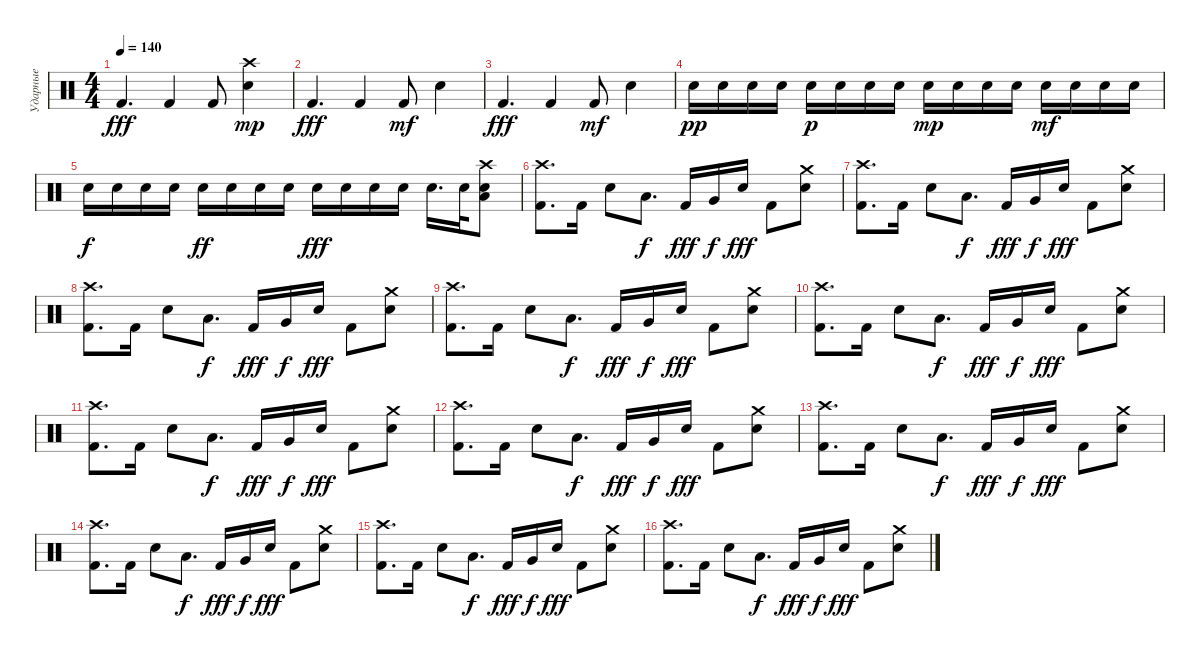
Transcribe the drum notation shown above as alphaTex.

\track ("Ударные" "Ударные") {instrument percussion}
\staff {score}
\articulation defaults
\ts (4 4)
\tempo 140
\clef neutral
\ks c "Kick (hit) 2".4{d dy fff} "Kick (hit) 2".4 "Kick (hit) 2".8
("Electric Snare (hit)" "Crash high (hit)").4{dy mp} |
"Kick (hit) 2".4{d dy fff} "Kick (hit) 2".4 "Kick (hit) 2".8{dy mf} "Electric Snare (hit)".4 |
"Kick (hit) 2".4{d dy fff} "Kick (hit) 2".4 "Kick (hit) 2".8{dy mf} "Electric Snare (hit)".4 |
"Electric Snare (hit)".16{dy pp} "Electric Snare (hit)".16 "Electric Snare (hit)".16 "Electric Snare (hit)".16 "Electric Snare (hit)".16{dy p} "Electric Snare (hit)".16 "Electric Snare (hit)".16 "Electric Snare (hit)".16 "Electric Snare (hit)".16{dy mp} "Electric Snare (hit)".16 "Electric Snare (hit)".16 "Electric Snare (hit)".16 "Electric Snare (hit)".16{dy mf} "Electric Snare (hit)".16 "Electric Snare (hit)".16 "Electric Snare (hit)".16 |
"Electric Snare (hit)".16{dy f} "Electric Snare (hit)".16 "Electric Snare (hit)".16 "Electric Snare (hit)".16 "Electric Snare (hit)".16{dy ff} "Electric Snare (hit)".16 "Electric Snare (hit)".16 "Electric Snare (hit)".16 "Electric Snare (hit)".16{dy fff} "Electric Snare (hit)".16 "Electric Snare (hit)".16 "Electric Snare (hit)".16 "Electric Snare (hit)".16{d} "Electric Snare (hit)".32 ("Low Floor Tom (hit)" "Electric Snare (hit)" "Crash high (hit)").8 |
("Kick (hit) 2" "Crash high (hit)").8{d} "Kick (hit) 2".16 "Electric Snare (hit)".8 "Low Floor Tom (hit)".8{d dy f} "Kick (hit) 2".16{dy fff} "Very Low Tom (hit)".16{dy f} "Electric Snare (hit)".16{dy fff} "Kick (hit) 2".8 ("Electric Snare (hit)" "Crash medium (hit)").8 |
("Kick (hit) 2" "Crash high (hit)").8{d} "Kick (hit) 2".16 "Electric Snare (hit)".8 "Low Floor Tom (hit)".8{d dy f} "Kick (hit) 2".16{dy fff} "Very Low Tom (hit)".16{dy f} "Electric Snare (hit)".16{dy fff} "Kick (hit) 2".8 ("Electric Snare (hit)" "Crash medium (hit)").8 |
("Kick (hit) 2" "Crash high (hit)").8{d} "Kick (hit) 2".16 "Electric Snare (hit)".8 "Low Floor Tom (hit)".8{d dy f} "Kick (hit) 2".16{dy fff} "Very Low Tom (hit)".16{dy f} "Electric Snare (hit)".16{dy fff} "Kick (hit) 2".8 ("Electric Snare (hit)" "Crash medium (hit)").8 |
("Kick (hit) 2" "Crash high (hit)").8{d} "Kick (hit) 2".16 "Electric Snare (hit)".8 "Low Floor Tom (hit)".8{d dy f} "Kick (hit) 2".16{dy fff} "Very Low Tom (hit)".16{dy f} "Electric Snare (hit)".16{dy fff} "Kick (hit) 2".8 ("Electric Snare (hit)" "Crash medium (hit)").8 |
("Kick (hit) 2" "Crash high (hit)").8{d} "Kick (hit) 2".16 "Electric Snare (hit)".8 "Low Floor Tom (hit)".8{d dy f} "Kick (hit) 2".16{dy fff} "Very Low Tom (hit)".16{dy f} "Electric Snare (hit)".16{dy fff} "Kick (hit) 2".8 ("Electric Snare (hit)" "Crash medium (hit)").8 |
("Kick (hit) 2" "Crash high (hit)").8{d} "Kick (hit) 2".16 "Electric Snare (hit)".8 "Low Floor Tom (hit)".8{d dy f} "Kick (hit) 2".16{dy fff} "Very Low Tom (hit)".16{dy f} "Electric Snare (hit)".16{dy fff} "Kick (hit) 2".8 ("Electric Snare (hit)" "Crash medium (hit)").8 |
("Kick (hit) 2" "Crash high (hit)").8{d} "Kick (hit) 2".16 "Electric Snare (hit)".8 "Low Floor Tom (hit)".8{d dy f} "Kick (hit) 2".16{dy fff} "Very Low Tom (hit)".16{dy f} "Electric Snare (hit)".16{dy fff} "Kick (hit) 2".8 ("Electric Snare (hit)" "Crash medium (hit)").8 |
("Kick (hit) 2" "Crash high (hit)").8{d} "Kick (hit) 2".16 "Electric Snare (hit)".8 "Low Floor Tom (hit)".8{d dy f} "Kick (hit) 2".16{dy fff} "Very Low Tom (hit)".16{dy f} "Electric Snare (hit)".16{dy fff} "Kick (hit) 2".8 ("Electric Snare (hit)" "Crash medium (hit)").8 |
("Kick (hit) 2" "Crash high (hit)").8{d} "Kick (hit) 2".16 "Electric Snare (hit)".8 "Low Floor Tom (hit)".8{d dy f} "Kick (hit) 2".16{dy fff} "Very Low Tom (hit)".16{dy f} "Electric Snare (hit)".16{dy fff} "Kick (hit) 2".8 ("Electric Snare (hit)" "Crash medium (hit)").8 |
("Kick (hit) 2" "Crash high (hit)").8{d} "Kick (hit) 2".16 "Electric Snare (hit)".8 "Low Floor Tom (hit)".8{d dy f} "Kick (hit) 2".16{dy fff} "Very Low Tom (hit)".16{dy f} "Electric Snare (hit)".16{dy fff} "Kick (hit) 2".8 ("Electric Snare (hit)" "Crash medium (hit)").8 |
("Kick (hit) 2" "Crash high (hit)").8{d} "Kick (hit) 2".16 "Electric Snare (hit)".8 "Low Floor Tom (hit)".8{d dy f} "Kick (hit) 2".16{dy fff} "Very Low Tom (hit)".16{dy f} "Electric Snare (hit)".16{dy fff} "Kick (hit) 2".8 ("Electric Snare (hit)" "Crash medium (hit)").8
